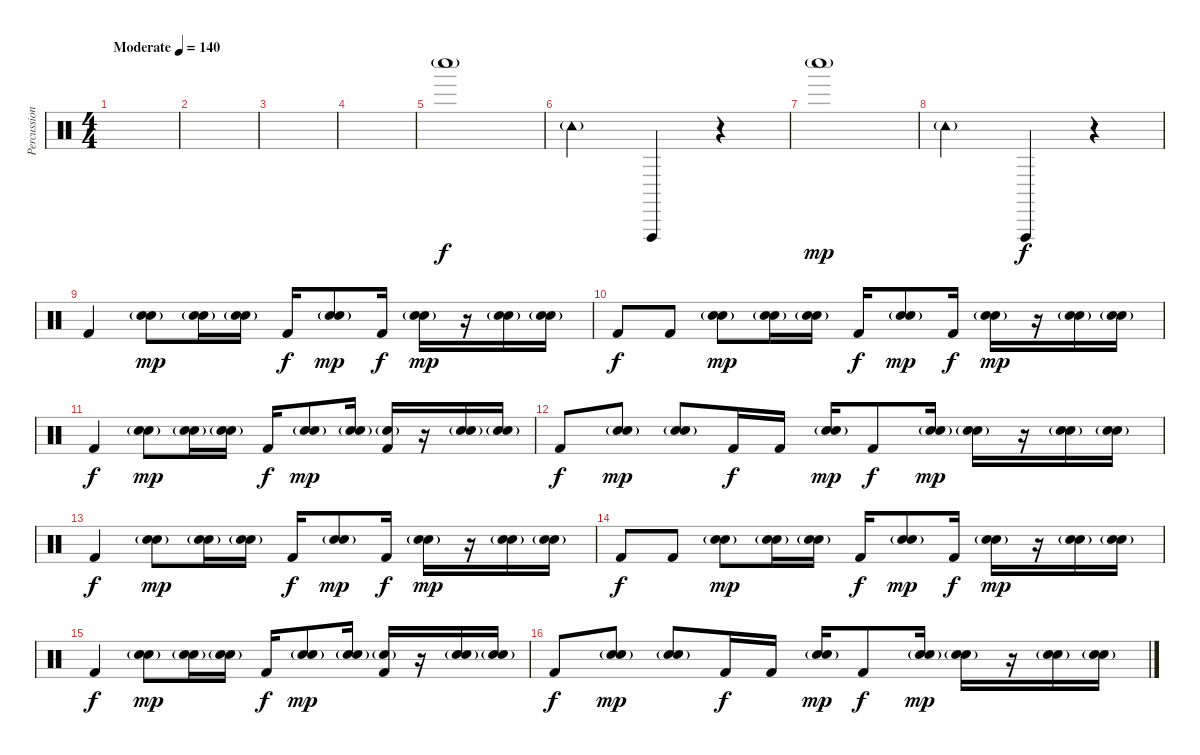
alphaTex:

\track ("Percussion" "Percussion") {instrument percussion}
\staff {score}
\articulation defaults
\ts (4 4)
\tempo (140 "Moderate")
\clef neutral
\ks c
|
|
|
|
"Whistle low (hit)"{g}.1 |
"Tambourine (hit)"{g}.2 "Vibraslap (hit)".4{dy f} r.4 |
"Whistle low (hit)"{g}.1{dy mp} |
"Tambourine (hit)"{g}.2 "Vibraslap (hit)".4{dy f} r.4 |
"Kick (hit) 2".4 ("Snare (hit) 2"{g} "Electric Snare (hit)").8{dy mp} ("Snare (hit) 2"{g} "Electric Snare (hit)").16 ("Snare (hit) 2"{g} "Electric Snare (hit)").16 "Kick (hit) 2".16{dy f} ("Electric Snare (hit)" "Snare (hit) 2"{g}).8{dy mp} "Kick (hit) 2".16{dy f} ("Electric Snare (hit)" "Snare (hit) 2"{g}).16{dy mp} r.16 ("Electric Snare (hit)" "Snare (hit) 2"{g}).16 ("Electric Snare (hit)" "Snare (hit) 2"{g}).16 |
"Kick (hit) 2".8{dy f} "Kick (hit) 2".8 ("Snare (hit) 2"{g} "Electric Snare (hit)").8{dy mp} ("Snare (hit) 2"{g} "Electric Snare (hit)").16 ("Snare (hit) 2"{g} "Electric Snare (hit)").16 "Kick (hit) 2".16{dy f} ("Electric Snare (hit)" "Snare (hit) 2"{g}).8{dy mp} "Kick (hit) 2".16{dy f} ("Electric Snare (hit)" "Snare (hit) 2"{g}).16{dy mp} r.16 ("Electric Snare (hit)" "Snare (hit) 2"{g}).16 ("Electric Snare (hit)" "Snare (hit) 2"{g}).16 |
"Kick (hit) 2".4{dy f} ("Snare (hit) 2"{g} "Electric Snare (hit)").8{dy mp} ("Snare (hit) 2"{g} "Electric Snare (hit)").16 ("Snare (hit) 2"{g} "Electric Snare (hit)").16 "Kick (hit) 2".16{dy f} ("Electric Snare (hit)" "Snare (hit) 2"{g}).8{dy mp} ("Snare (hit) 2"{g} "Electric Snare (hit)").16 ("Snare (hit) 2"{g} "Kick (hit) 2").16 r.16 ("Electric Snare (hit)" "Snare (hit) 2"{g}).16 ("Electric Snare (hit)" "Snare (hit) 2"{g}).16 |
"Kick (hit) 2".8{dy f} ("Snare (hit) 2"{g} "Electric Snare (hit)").8{dy mp} ("Snare (hit) 2"{g} "Electric Snare (hit)").8 "Kick (hit) 2".16{dy f} "Kick (hit) 2".16 ("Snare (hit) 2"{g} "Electric Snare (hit)").16{dy mp} "Kick (hit) 2".8{dy f} ("Snare (hit) 2"{g} "Electric Snare (hit)").16{dy mp} ("Snare (hit) 2"{g} "Electric Snare (hit)").16 r.16 ("Electric Snare (hit)" "Snare (hit) 2"{g}).16 ("Electric Snare (hit)" "Snare (hit) 2"{g}).16 |
"Kick (hit) 2".4{dy f} ("Snare (hit) 2"{g} "Electric Snare (hit)").8{dy mp} ("Snare (hit) 2"{g} "Electric Snare (hit)").16 ("Snare (hit) 2"{g} "Electric Snare (hit)").16 "Kick (hit) 2".16{dy f} ("Electric Snare (hit)" "Snare (hit) 2"{g}).8{dy mp} "Kick (hit) 2".16{dy f} ("Electric Snare (hit)" "Snare (hit) 2"{g}).16{dy mp} r.16 ("Electric Snare (hit)" "Snare (hit) 2"{g}).16 ("Electric Snare (hit)" "Snare (hit) 2"{g}).16 |
"Kick (hit) 2".8{dy f} "Kick (hit) 2".8 ("Snare (hit) 2"{g} "Electric Snare (hit)").8{dy mp} ("Snare (hit) 2"{g} "Electric Snare (hit)").16 ("Snare (hit) 2"{g} "Electric Snare (hit)").16 "Kick (hit) 2".16{dy f} ("Electric Snare (hit)" "Snare (hit) 2"{g}).8{dy mp} "Kick (hit) 2".16{dy f} ("Electric Snare (hit)" "Snare (hit) 2"{g}).16{dy mp} r.16 ("Electric Snare (hit)" "Snare (hit) 2"{g}).16 ("Electric Snare (hit)" "Snare (hit) 2"{g}).16 |
"Kick (hit) 2".4{dy f} ("Snare (hit) 2"{g} "Electric Snare (hit)").8{dy mp} ("Snare (hit) 2"{g} "Electric Snare (hit)").16 ("Snare (hit) 2"{g} "Electric Snare (hit)").16 "Kick (hit) 2".16{dy f} ("Electric Snare (hit)" "Snare (hit) 2"{g}).8{dy mp} ("Snare (hit) 2"{g} "Electric Snare (hit)").16 ("Snare (hit) 2"{g} "Kick (hit) 2").16 r.16 ("Electric Snare (hit)" "Snare (hit) 2"{g}).16 ("Electric Snare (hit)" "Snare (hit) 2"{g}).16 |
"Kick (hit) 2".8{dy f} ("Snare (hit) 2"{g} "Electric Snare (hit)").8{dy mp} ("Snare (hit) 2"{g} "Electric Snare (hit)").8 "Kick (hit) 2".16{dy f} "Kick (hit) 2".16 ("Snare (hit) 2"{g} "Electric Snare (hit)").16{dy mp} "Kick (hit) 2".8{dy f} ("Snare (hit) 2"{g} "Electric Snare (hit)").16{dy mp} ("Snare (hit) 2"{g} "Electric Snare (hit)").16 r.16 ("Electric Snare (hit)" "Snare (hit) 2"{g}).16 ("Electric Snare (hit)" "Snare (hit) 2"{g}).16
